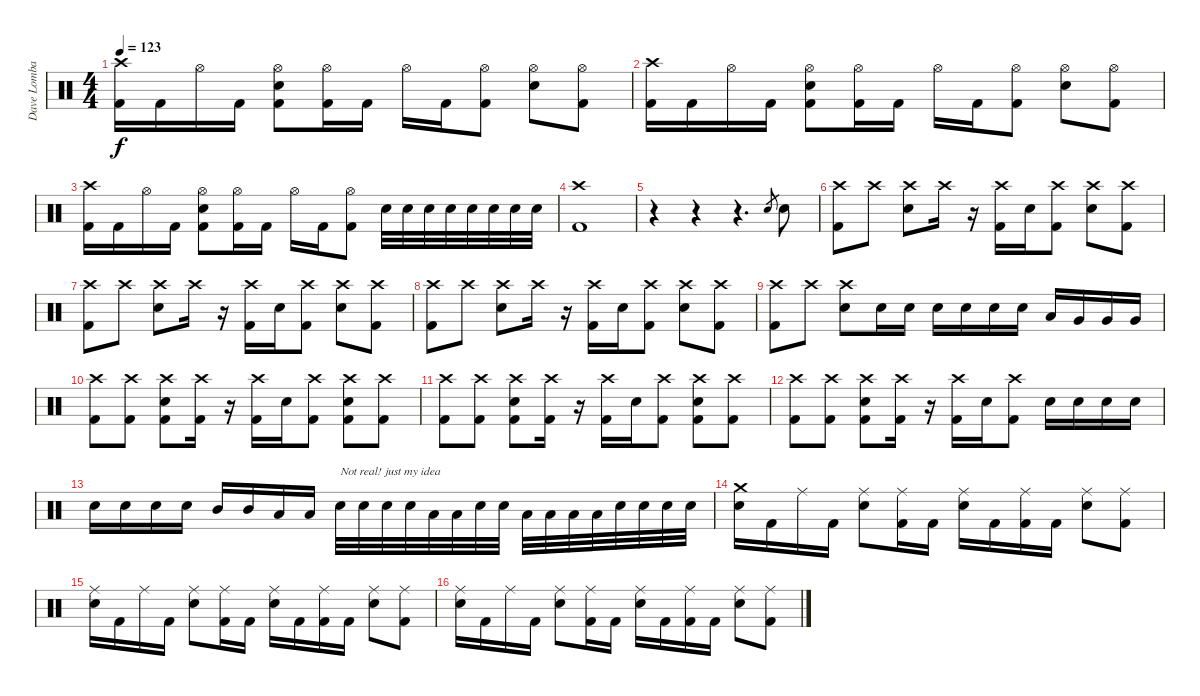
\track ("Dave Lombardo" "Dave Lomba") {instrument percussion}
\staff {score}
\articulation defaults
\ts (4 4)
\tempo 123
\clef neutral
\ks c
("Crash high (hit)" "Kick (hit) 2").16{dy f} "Kick (hit) 2".16 "Hi-Hat (open)".16 "Kick (hit) 2".16 ("Hi-Hat (open)" "Electric Snare (hit)" "Kick (hit) 2").8 ("Hi-Hat (open)" "Kick (hit) 2").16 "Kick (hit) 2".16 "Hi-Hat (open)".16 "Kick (hit) 2".16 ("Hi-Hat (open)" "Kick (hit) 2").8 ("Hi-Hat (open)" "Electric Snare (hit)").8 ("Hi-Hat (open)" "Kick (hit) 2").8 |
("Crash high (hit)" "Kick (hit) 2").16 "Kick (hit) 2".16 "Hi-Hat (open)".16 "Kick (hit) 2".16 ("Hi-Hat (open)" "Electric Snare (hit)" "Kick (hit) 2").8 ("Hi-Hat (open)" "Kick (hit) 2").16 "Kick (hit) 2".16 "Hi-Hat (open)".16 "Kick (hit) 2".16 ("Hi-Hat (open)" "Kick (hit) 2").8 ("Hi-Hat (open)" "Electric Snare (hit)").8 ("Hi-Hat (open)" "Kick (hit) 2").8 |
("Crash high (hit)" "Kick (hit) 2").16 "Kick (hit) 2".16 "Hi-Hat (open)".16 "Kick (hit) 2".16 ("Hi-Hat (open)" "Electric Snare (hit)" "Kick (hit) 2").8 ("Hi-Hat (open)" "Kick (hit) 2").16 "Kick (hit) 2".16 "Hi-Hat (open)".16 "Kick (hit) 2".16 ("Hi-Hat (open)" "Kick (hit) 2").8 "Electric Snare (hit)".32 "Electric Snare (hit)".32 "Electric Snare (hit)".32 "Electric Snare (hit)".32 "Electric Snare (hit)".32 "Electric Snare (hit)".32 "Electric Snare (hit)".32 "Electric Snare (hit)".32 |
("Crash high (hit)" "Kick (hit) 2").1 |
r.4 r.4 r.4{d} "Electric Snare (hit)".8{gr} "Electric Snare (hit)".8 |
("Crash high (hit)" "Kick (hit) 2").8 "Crash high (hit)".8 ("Crash high (hit)" "Electric Snare (hit)").8 "Crash high (hit)".16 r.16 ("Crash high (hit)" "Kick (hit) 2").16 "Electric Snare (hit)".16 ("Crash high (hit)" "Kick (hit) 2").8 ("Crash high (hit)" "Electric Snare (hit)").8 ("Crash high (hit)" "Kick (hit) 2").8 |
("Crash high (hit)" "Kick (hit) 2").8 "Crash high (hit)".8 ("Crash high (hit)" "Electric Snare (hit)").8 "Crash high (hit)".16 r.16 ("Crash high (hit)" "Kick (hit) 2").16 "Electric Snare (hit)".16 ("Crash high (hit)" "Kick (hit) 2").8 ("Crash high (hit)" "Electric Snare (hit)").8 ("Crash high (hit)" "Kick (hit) 2").8 |
("Crash high (hit)" "Kick (hit) 2").8 "Crash high (hit)".8 ("Crash high (hit)" "Electric Snare (hit)").8 "Crash high (hit)".16 r.16 ("Crash high (hit)" "Kick (hit) 2").16 "Electric Snare (hit)".16 ("Crash high (hit)" "Kick (hit) 2").8 ("Crash high (hit)" "Electric Snare (hit)").8 ("Crash high (hit)" "Kick (hit) 2").8 |
("Crash high (hit)" "Kick (hit) 2").8 "Crash high (hit)".8 ("Crash high (hit)" "Electric Snare (hit)").8 "Electric Snare (hit)".16 "Electric Snare (hit)".16 "Electric Snare (hit)".16 "Electric Snare (hit)".16 "Electric Snare (hit)".16 "Electric Snare (hit)".16 "Low Tom (hit)".16 "Very Low Tom (hit)".16 "Very Low Tom (hit)".16 "Very Low Tom (hit)".16 |
("Crash high (hit)" "Kick (hit) 2").8 ("Crash high (hit)" "Kick (hit) 2").8 ("Crash high (hit)" "Electric Snare (hit)" "Kick (hit) 2").8 ("Crash high (hit)" "Kick (hit) 2").16 r.16 ("Crash high (hit)" "Kick (hit) 2").16 "Electric Snare (hit)".16 ("Crash high (hit)" "Kick (hit) 2").8 ("Crash high (hit)" "Electric Snare (hit)" "Kick (hit) 2").8 ("Crash high (hit)" "Kick (hit) 2").8 |
("Crash high (hit)" "Kick (hit) 2").8 ("Crash high (hit)" "Kick (hit) 2").8 ("Crash high (hit)" "Electric Snare (hit)" "Kick (hit) 2").8 ("Crash high (hit)" "Kick (hit) 2").16 r.16 ("Crash high (hit)" "Kick (hit) 2").16 "Electric Snare (hit)".16 ("Crash high (hit)" "Kick (hit) 2").8 ("Crash high (hit)" "Electric Snare (hit)" "Kick (hit) 2").8 ("Crash high (hit)" "Kick (hit) 2").8 |
("Crash high (hit)" "Kick (hit) 2").8 ("Crash high (hit)" "Kick (hit) 2").8 ("Crash high (hit)" "Electric Snare (hit)" "Kick (hit) 2").8 ("Crash high (hit)" "Kick (hit) 2").16 r.16 ("Crash high (hit)" "Kick (hit) 2").16 "Electric Snare (hit)".16 ("Crash high (hit)" "Kick (hit) 2").8 "Electric Snare (hit)".16 "Electric Snare (hit)".16 "Electric Snare (hit)".16 "Electric Snare (hit)".16 |
"Electric Snare (hit)".16 "Electric Snare (hit)".16 "Electric Snare (hit)".16 "Electric Snare (hit)".16 "Mid Tom (hit)".16 "Mid Tom (hit)".16 "Low Tom (hit)".16 "Low Tom (hit)".16 "Electric Snare (hit)".32{txt "Not real! just my idea"} "Electric Snare (hit)".32 "Electric Snare (hit)".32 "Electric Snare (hit)".32 "Low Tom (hit)".32 "Low Tom (hit)".32 "Electric Snare (hit)".32 "Electric Snare (hit)".32 "Low Tom (hit)".32 "Low Tom (hit)".32 "Low Tom (hit)".32 "Low Tom (hit)".32 "Electric Snare (hit)".32 "Electric Snare (hit)".32 "Electric Snare (hit)".32 "Electric Snare (hit)".32 |
("Electric Snare (hit)" "Crash medium (hit)").16 "Kick (hit) 2".16 "Ride (middle)".16 "Kick (hit) 2".16 ("Electric Snare (hit)" "Ride (middle)").8 ("Kick (hit) 2" "Ride (middle)").16 "Kick (hit) 2".16 ("Electric Snare (hit)" "Ride (middle)").16 "Kick (hit) 2".16 ("Kick (hit) 2" "Ride (middle)").16 "Kick (hit) 2".16 ("Electric Snare (hit)" "Ride (middle)").8 ("Kick (hit) 2" "Ride (middle)").8 |
("Electric Snare (hit)" "Ride (middle)").16 "Kick (hit) 2".16 "Ride (middle)".16 "Kick (hit) 2".16 ("Electric Snare (hit)" "Ride (middle)").8 ("Kick (hit) 2" "Ride (middle)").16 "Kick (hit) 2".16 ("Electric Snare (hit)" "Ride (middle)").16 "Kick (hit) 2".16 ("Kick (hit) 2" "Ride (middle)").16 "Kick (hit) 2".16 ("Electric Snare (hit)" "Ride (middle)").8 ("Kick (hit) 2" "Ride (middle)").8 |
("Electric Snare (hit)" "Ride (middle)").16 "Kick (hit) 2".16 "Ride (middle)".16 "Kick (hit) 2".16 ("Electric Snare (hit)" "Ride (middle)").8 ("Kick (hit) 2" "Ride (middle)").16 "Kick (hit) 2".16 ("Electric Snare (hit)" "Ride (middle)").16 "Kick (hit) 2".16 ("Kick (hit) 2" "Ride (middle)").16 "Kick (hit) 2".16 ("Electric Snare (hit)" "Ride (middle)").8 ("Kick (hit) 2" "Ride (middle)").8
